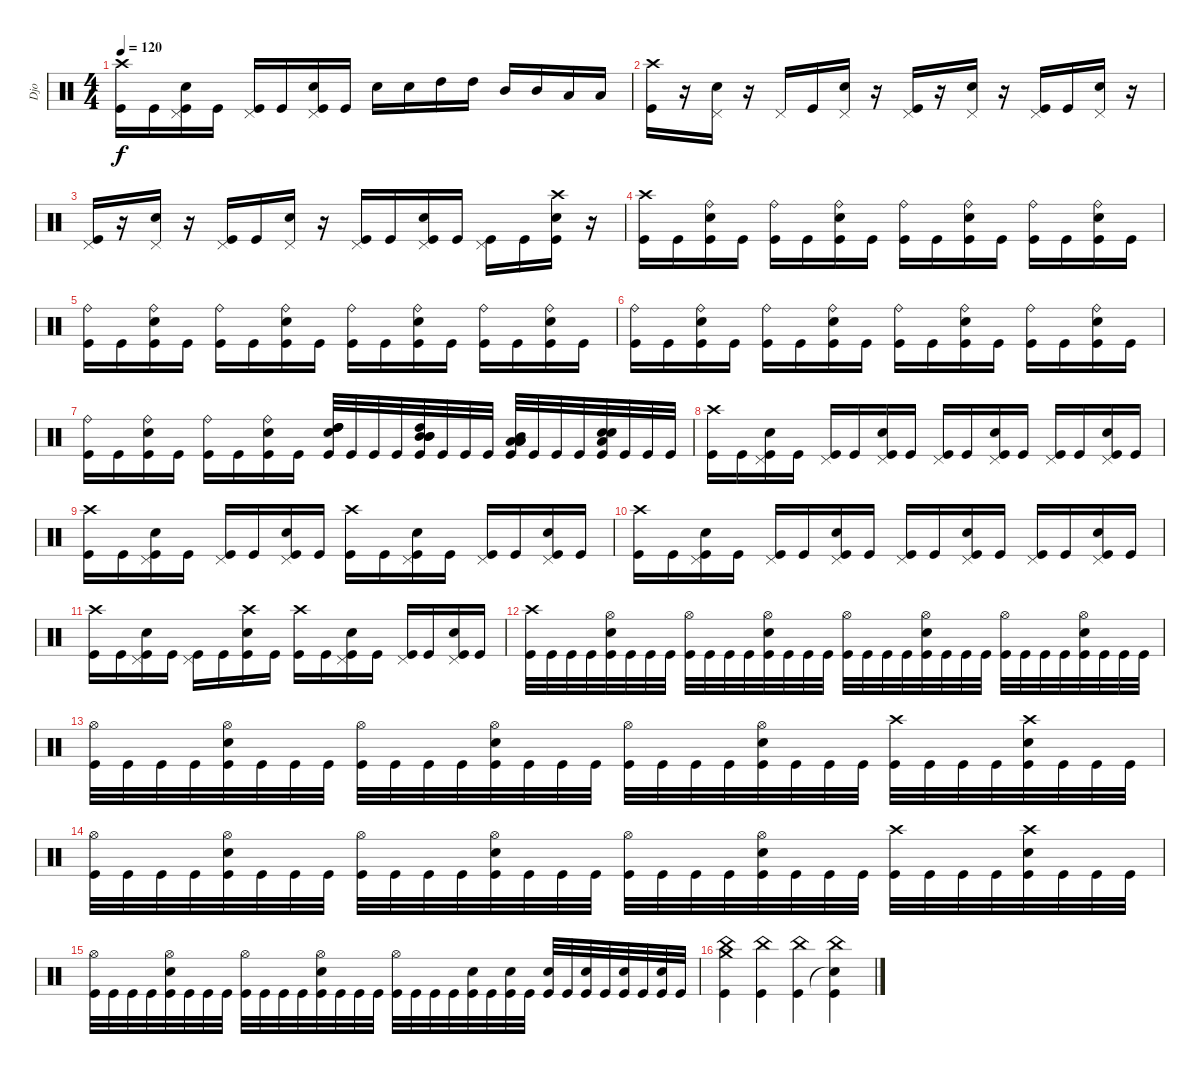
\track ("Djo" "Djo") {instrument percussion}
\staff {score}
\articulation defaults
\ts (4 4)
\tempo 120
\clef neutral
\ks c
("Crash high (hit)" "Kick (hit)").16{dy f} "Kick (hit)".16 ("Pedal Hi-Hat (hit)" "Electric Snare (hit)" "Kick (hit)").16 "Kick (hit)".16 ("Pedal Hi-Hat (hit)" "Kick (hit)").16 "Kick (hit)".16 ("Pedal Hi-Hat (hit)" "Electric Snare (hit)" "Kick (hit)").16 "Kick (hit)".16 "Electric Snare (hit)".16 "Electric Snare (hit)".16 "High Tom (hit)".16 "High Tom (hit)".16 "Mid Tom (hit)".16 "Mid Tom (hit)".16 "Low Tom (hit)".16 "Low Tom (hit)".16 |
("Crash high (hit)" "Kick (hit)").16 r.16 ("Pedal Hi-Hat (hit)" "Electric Snare (hit)").16 r.16 "Pedal Hi-Hat (hit)".16 "Kick (hit)".16 ("Pedal Hi-Hat (hit)" "Electric Snare (hit)").16 r.16 ("Pedal Hi-Hat (hit)" "Kick (hit)").16 r.16 ("Pedal Hi-Hat (hit)" "Electric Snare (hit)").16 r.16 ("Pedal Hi-Hat (hit)" "Kick (hit)").16 "Kick (hit)".16 ("Pedal Hi-Hat (hit)" "Electric Snare (hit)").16 r.16 |
("Pedal Hi-Hat (hit)" "Kick (hit)").16 r.16 ("Pedal Hi-Hat (hit)" "Electric Snare (hit)").16 r.16 ("Pedal Hi-Hat (hit)" "Kick (hit)").16 "Kick (hit)".16 ("Pedal Hi-Hat (hit)" "Electric Snare (hit)").16 r.16 ("Pedal Hi-Hat (hit)" "Kick (hit)").16 "Kick (hit)".16 ("Pedal Hi-Hat (hit)" "Electric Snare (hit)" "Kick (hit)").16 "Kick (hit)".16 ("Pedal Hi-Hat (hit)" "Kick (hit)").16 "Kick (hit)".16 ("Crash high (hit)" "Electric Snare (hit)" "Kick (hit)").16 r.16 |
("Crash high (hit)" "Kick (hit)").16 "Kick (hit)".16 ("Ride (bell)" "Electric Snare (hit)" "Kick (hit)").16 "Kick (hit)".16 ("Ride (bell)" "Kick (hit)").16 "Kick (hit)".16 ("Ride (bell)" "Electric Snare (hit)" "Kick (hit)").16 "Kick (hit)".16 ("Ride (bell)" "Kick (hit)").16 "Kick (hit)".16 ("Ride (bell)" "Electric Snare (hit)" "Kick (hit)").16 "Kick (hit)".16 ("Ride (bell)" "Kick (hit)").16 "Kick (hit)".16 ("Ride (bell)" "Electric Snare (hit)" "Kick (hit)").16 "Kick (hit)".16 |
("Ride (bell)" "Kick (hit)").16 "Kick (hit)".16 ("Ride (bell)" "Electric Snare (hit)" "Kick (hit)").16 "Kick (hit)".16 ("Ride (bell)" "Kick (hit)").16 "Kick (hit)".16 ("Ride (bell)" "Electric Snare (hit)" "Kick (hit)").16 "Kick (hit)".16 ("Ride (bell)" "Kick (hit)").16 "Kick (hit)".16 ("Ride (bell)" "Electric Snare (hit)" "Kick (hit)").16 "Kick (hit)".16 ("Ride (bell)" "Kick (hit)").16 "Kick (hit)".16 ("Ride (bell)" "Electric Snare (hit)" "Kick (hit)").16 "Kick (hit)".16 |
("Ride (bell)" "Kick (hit)").16 "Kick (hit)".16 ("Ride (bell)" "Electric Snare (hit)" "Kick (hit)").16 "Kick (hit)".16 ("Ride (bell)" "Kick (hit)").16 "Kick (hit)".16 ("Ride (bell)" "Electric Snare (hit)" "Kick (hit)").16 "Kick (hit)".16 ("Ride (bell)" "Kick (hit)").16 "Kick (hit)".16 ("Ride (bell)" "Electric Snare (hit)" "Kick (hit)").16 "Kick (hit)".16 ("Ride (bell)" "Kick (hit)").16 "Kick (hit)".16 ("Ride (bell)" "Electric Snare (hit)" "Kick (hit)").16 "Kick (hit)".16 |
("Ride (bell)" "Kick (hit)").16 "Kick (hit)".16 ("Ride (bell)" "Electric Snare (hit)" "Kick (hit)").16 "Kick (hit)".16 ("Ride (bell)" "Kick (hit)").16 "Kick (hit)".16 ("Ride (bell)" "Electric Snare (hit)" "Kick (hit)").16 "Kick (hit)".16 ("High Tom (hit)" "High Tom (hit)" "High Tom (hit)" "Electric Snare (hit)" "Kick (hit)").32 "Kick (hit)".32 "Kick (hit)".32 "Kick (hit)".32 ("Mid Tom (hit)" "Mid Tom (hit)" "Mid Tom (hit)" "High Tom (hit)" "Kick (hit)").32 "Kick (hit)".32 "Kick (hit)".32 "Kick (hit)".32 ("Low Tom (hit)" "Low Tom (hit)" "Low Tom (hit)" "Mid Tom (hit)" "Kick (hit)").32 "Kick (hit)".32 "Kick (hit)".32 "Kick (hit)".32 ("Snare (hit) 2" "Snare (hit) 2" "Low Tom (hit)" "Kick (hit)").32 "Kick (hit)".32 "Kick (hit)".32 "Kick (hit)".32 |
("Crash high (hit)" "Kick (hit)").16 "Kick (hit)".16 ("Pedal Hi-Hat (hit)" "Electric Snare (hit)" "Kick (hit)").16 "Kick (hit)".16 ("Pedal Hi-Hat (hit)" "Kick (hit)").16 "Kick (hit)".16 ("Pedal Hi-Hat (hit)" "Electric Snare (hit)" "Kick (hit)").16 "Kick (hit)".16 ("Pedal Hi-Hat (hit)" "Kick (hit)").16 "Kick (hit)".16 ("Pedal Hi-Hat (hit)" "Electric Snare (hit)" "Kick (hit)").16 "Kick (hit)".16 ("Pedal Hi-Hat (hit)" "Kick (hit)").16 "Kick (hit)".16 ("Pedal Hi-Hat (hit)" "Electric Snare (hit)" "Kick (hit)").16 "Kick (hit)".16 |
("Crash high (hit)" "Kick (hit)").16 "Kick (hit)".16 ("Pedal Hi-Hat (hit)" "Electric Snare (hit)" "Kick (hit)").16 "Kick (hit)".16 ("Pedal Hi-Hat (hit)" "Kick (hit)").16 "Kick (hit)".16 ("Pedal Hi-Hat (hit)" "Electric Snare (hit)" "Kick (hit)").16 "Kick (hit)".16 ("Crash high (hit)" "Kick (hit)").16 "Kick (hit)".16 ("Pedal Hi-Hat (hit)" "Electric Snare (hit)" "Kick (hit)").16 "Kick (hit)".16 ("Pedal Hi-Hat (hit)" "Kick (hit)").16 "Kick (hit)".16 ("Pedal Hi-Hat (hit)" "Electric Snare (hit)" "Kick (hit)").16 "Kick (hit)".16 |
("Crash high (hit)" "Kick (hit)").16 "Kick (hit)".16 ("Pedal Hi-Hat (hit)" "Electric Snare (hit)" "Kick (hit)").16 "Kick (hit)".16 ("Pedal Hi-Hat (hit)" "Kick (hit)").16 "Kick (hit)".16 ("Pedal Hi-Hat (hit)" "Electric Snare (hit)" "Kick (hit)").16 "Kick (hit)".16 ("Pedal Hi-Hat (hit)" "Kick (hit)").16 "Kick (hit)".16 ("Pedal Hi-Hat (hit)" "Electric Snare (hit)" "Kick (hit)").16 "Kick (hit)".16 ("Pedal Hi-Hat (hit)" "Kick (hit)").16 "Kick (hit)".16 ("Pedal Hi-Hat (hit)" "Electric Snare (hit)" "Kick (hit)").16 "Kick (hit)".16 |
("Crash high (hit)" "Kick (hit)").16 "Kick (hit)".16 ("Pedal Hi-Hat (hit)" "Electric Snare (hit)" "Kick (hit)").16 "Kick (hit)".16 ("Pedal Hi-Hat (hit)" "Kick (hit)").16 "Kick (hit)".16 ("Crash high (hit)" "Electric Snare (hit)" "Kick (hit)").16 "Kick (hit)".16 ("Crash high (hit)" "Kick (hit)").16 "Kick (hit)".16 ("Pedal Hi-Hat (hit)" "Electric Snare (hit)" "Kick (hit)").16 "Kick (hit)".16 ("Pedal Hi-Hat (hit)" "Kick (hit)").16 "Kick (hit)".16 ("Pedal Hi-Hat (hit)" "Electric Snare (hit)" "Kick (hit)").16 "Kick (hit)".16 |
("Crash high (hit)" "Kick (hit)").32 "Kick (hit)".32 "Kick (hit)".32 "Kick (hit)".32 ("Hi-Hat (open)" "Electric Snare (hit)" "Kick (hit)").32 "Kick (hit)".32 "Kick (hit)".32 "Kick (hit)".32 ("Hi-Hat (open)" "Kick (hit)").32 "Kick (hit)".32 "Kick (hit)".32 "Kick (hit)".32 ("Hi-Hat (open)" "Electric Snare (hit)" "Kick (hit)").32 "Kick (hit)".32 "Kick (hit)".32 "Kick (hit)".32 ("Hi-Hat (open)" "Kick (hit)").32 "Kick (hit)".32 "Kick (hit)".32 "Kick (hit)".32 ("Hi-Hat (open)" "Electric Snare (hit)" "Kick (hit)").32 "Kick (hit)".32 "Kick (hit)".32 "Kick (hit)".32 ("Hi-Hat (open)" "Kick (hit)").32 "Kick (hit)".32 "Kick (hit)".32 "Kick (hit)".32 ("Hi-Hat (open)" "Electric Snare (hit)" "Kick (hit)").32 "Kick (hit)".32 "Kick (hit)".32 "Kick (hit)".32 |
("Hi-Hat (open)" "Kick (hit)").32 "Kick (hit)".32 "Kick (hit)".32 "Kick (hit)".32 ("Hi-Hat (open)" "Electric Snare (hit)" "Kick (hit)").32 "Kick (hit)".32 "Kick (hit)".32 "Kick (hit)".32 ("Hi-Hat (open)" "Kick (hit)").32 "Kick (hit)".32 "Kick (hit)".32 "Kick (hit)".32 ("Hi-Hat (open)" "Electric Snare (hit)" "Kick (hit)").32 "Kick (hit)".32 "Kick (hit)".32 "Kick (hit)".32 ("Hi-Hat (open)" "Kick (hit)").32 "Kick (hit)".32 "Kick (hit)".32 "Kick (hit)".32 ("Hi-Hat (open)" "Electric Snare (hit)" "Kick (hit)").32 "Kick (hit)".32 "Kick (hit)".32 "Kick (hit)".32 ("Crash high (hit)" "Kick (hit)").32 "Kick (hit)".32 "Kick (hit)".32 "Kick (hit)".32 ("Crash high (hit)" "Electric Snare (hit)" "Kick (hit)").32 "Kick (hit)".32 "Kick (hit)".32 "Kick (hit)".32 |
("Hi-Hat (open)" "Kick (hit)").32 "Kick (hit)".32 "Kick (hit)".32 "Kick (hit)".32 ("Hi-Hat (open)" "Electric Snare (hit)" "Kick (hit)").32 "Kick (hit)".32 "Kick (hit)".32 "Kick (hit)".32 ("Hi-Hat (open)" "Kick (hit)").32 "Kick (hit)".32 "Kick (hit)".32 "Kick (hit)".32 ("Hi-Hat (open)" "Electric Snare (hit)" "Kick (hit)").32 "Kick (hit)".32 "Kick (hit)".32 "Kick (hit)".32 ("Hi-Hat (open)" "Kick (hit)").32 "Kick (hit)".32 "Kick (hit)".32 "Kick (hit)".32 ("Hi-Hat (open)" "Electric Snare (hit)" "Kick (hit)").32 "Kick (hit)".32 "Kick (hit)".32 "Kick (hit)".32 ("Crash high (hit)" "Kick (hit)").32 "Kick (hit)".32 "Kick (hit)".32 "Kick (hit)".32 ("Crash high (hit)" "Electric Snare (hit)" "Kick (hit)").32 "Kick (hit)".32 "Kick (hit)".32 "Kick (hit)".32 |
("Hi-Hat (open)" "Kick (hit)").32 "Kick (hit)".32 "Kick (hit)".32 "Kick (hit)".32 ("Hi-Hat (open)" "Electric Snare (hit)" "Kick (hit)").32 "Kick (hit)".32 "Kick (hit)".32 "Kick (hit)".32 ("Hi-Hat (open)" "Kick (hit)").32 "Kick (hit)".32 "Kick (hit)".32 "Kick (hit)".32 ("Hi-Hat (open)" "Electric Snare (hit)" "Kick (hit)").32 "Kick (hit)".32 "Kick (hit)".32 "Kick (hit)".32 ("Hi-Hat (open)" "Kick (hit)").32 "Kick (hit)".32 "Kick (hit)".32 "Kick (hit)".32 ("Electric Snare (hit)" "Kick (hit)").32 "Kick (hit)".32 ("Electric Snare (hit)" "Kick (hit)").32 "Kick (hit)".32 ("Electric Snare (hit)" "Kick (hit)").32 "Kick (hit)".32 ("Electric Snare (hit)" "Kick (hit)").32 "Kick (hit)".32 ("Electric Snare (hit)" "Kick (hit)").32 "Kick (hit)".32 ("Electric Snare (hit)" "Kick (hit)").32 "Kick (hit)".32 |
("China (hit)" "Crash medium (hit)" "Kick (hit)").4 ("China (hit)" "Kick (hit)").4 ("China (hit)" "Kick (hit)").4 ("China (hit)" "Snare (hit)"{t} "Kick (hit)").4
